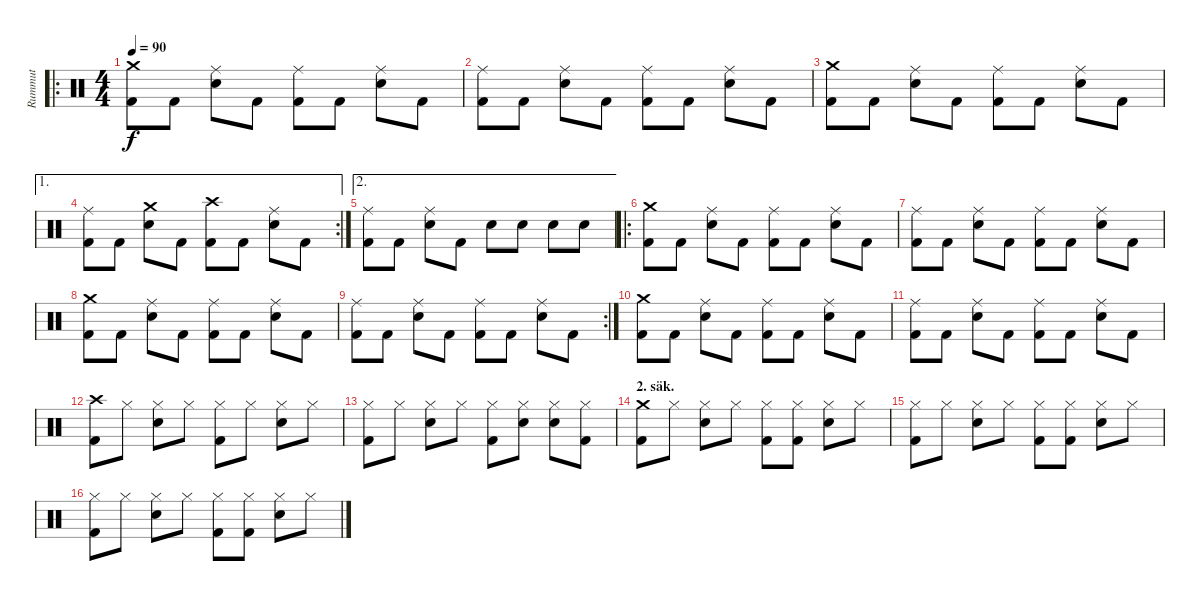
\track ("Rummut" "Rummut") {instrument percussion}
\staff {score}
\articulation defaults
\ro
\ts (4 4)
\tempo 90
\clef neutral
\ks c
("Kick (hit) 2" "Crash medium (hit)").8{dy f} "Kick (hit) 2".8 ("Ride (middle)" "Snare (hit) 2").8 "Kick (hit) 2".8 ("Kick (hit) 2" "Ride (middle)").8 "Kick (hit) 2".8 ("Ride (middle)" "Snare (hit) 2").8 "Kick (hit) 2".8 |
("Kick (hit) 2" "Ride (middle)").8 "Kick (hit) 2".8 ("Ride (middle)" "Snare (hit) 2").8 "Kick (hit) 2".8 ("Kick (hit) 2" "Ride (middle)").8 "Kick (hit) 2".8 ("Ride (middle)" "Snare (hit) 2").8 "Kick (hit) 2".8 |
("Kick (hit) 2" "Crash medium (hit)").8 "Kick (hit) 2".8 ("Ride (middle)" "Snare (hit) 2").8 "Kick (hit) 2".8 ("Kick (hit) 2" "Ride (middle)").8 "Kick (hit) 2".8 ("Ride (middle)" "Snare (hit) 2").8 "Kick (hit) 2".8 |
\ae 1
\rc 2
("Kick (hit) 2" "Ride (middle)").8 "Kick (hit) 2".8 ("Crash medium (hit)" "Snare (hit) 2").8 "Kick (hit) 2".8 ("Kick (hit) 2" "Crash high (hit)").8 "Kick (hit) 2".8 ("Ride (middle)" "Snare (hit) 2").8 "Kick (hit) 2".8 |
\ae 2
("Kick (hit) 2" "Ride (middle)").8 "Kick (hit) 2".8 ("Ride (middle)" "Snare (hit) 2").8 "Kick (hit) 2".8 "Snare (hit) 2".8 "Snare (hit) 2".8 "Snare (hit) 2".8 "Snare (hit) 2".8 |
\ro
("Kick (hit) 2" "Crash medium (hit)").8 "Kick (hit) 2".8 ("Ride (middle)" "Snare (hit) 2").8 "Kick (hit) 2".8 ("Kick (hit) 2" "Ride (middle)").8 "Kick (hit) 2".8 ("Ride (middle)" "Snare (hit) 2").8 "Kick (hit) 2".8 |
("Kick (hit) 2" "Ride (middle)").8 "Kick (hit) 2".8 ("Ride (middle)" "Snare (hit) 2").8 "Kick (hit) 2".8 ("Kick (hit) 2" "Ride (middle)").8 "Kick (hit) 2".8 ("Ride (middle)" "Snare (hit) 2").8 "Kick (hit) 2".8 |
("Kick (hit) 2" "Crash medium (hit)").8 "Kick (hit) 2".8 ("Ride (middle)" "Snare (hit) 2").8 "Kick (hit) 2".8 ("Kick (hit) 2" "Ride (middle)").8 "Kick (hit) 2".8 ("Ride (middle)" "Snare (hit) 2").8 "Kick (hit) 2".8 |
\rc 2
("Kick (hit) 2" "Ride (middle)").8 "Kick (hit) 2".8 ("Ride (middle)" "Snare (hit) 2").8 "Kick (hit) 2".8 ("Kick (hit) 2" "Ride (middle)").8 "Kick (hit) 2".8 ("Ride (middle)" "Snare (hit) 2").8 "Kick (hit) 2".8 |
("Kick (hit) 2" "Crash medium (hit)").8 "Kick (hit) 2".8 ("Ride (middle)" "Snare (hit) 2").8 "Kick (hit) 2".8 ("Kick (hit) 2" "Ride (middle)").8 "Kick (hit) 2".8 ("Ride (middle)" "Snare (hit) 2").8 "Kick (hit) 2".8 |
("Kick (hit) 2" "Ride (middle)").8 "Kick (hit) 2".8 ("Ride (middle)" "Snare (hit) 2").8 "Kick (hit) 2".8 ("Kick (hit) 2" "Ride (middle)").8 "Kick (hit) 2".8 ("Ride (middle)" "Snare (hit) 2").8 "Kick (hit) 2".8 |
("Kick (hit) 2" "Crash high (hit)").8 "Hi-Hat (closed)".8 ("Hi-Hat (closed)" "Snare (hit) 2").8 "Hi-Hat (closed)".8 ("Kick (hit) 2" "Hi-Hat (closed)").8 "Hi-Hat (closed)".8 ("Hi-Hat (closed)" "Snare (hit) 2").8 "Hi-Hat (closed)".8 |
("Kick (hit) 2" "Hi-Hat (closed)").8 "Hi-Hat (closed)".8 ("Hi-Hat (closed)" "Snare (hit) 2").8 "Hi-Hat (closed)".8 ("Kick (hit) 2" "Hi-Hat (closed)").8 ("Hi-Hat (closed)" "Snare (hit) 2").8 ("Hi-Hat (closed)" "Snare (hit) 2").8 ("Kick (hit) 2" "Hi-Hat (closed)").8 |
\section ("" "2. säk.")
("Kick (hit) 2" "Crash medium (hit)").8 "Hi-Hat (closed)".8 ("Hi-Hat (closed)" "Snare (hit) 2").8 "Hi-Hat (closed)".8 ("Kick (hit) 2" "Hi-Hat (closed)").8 ("Kick (hit) 2" "Hi-Hat (closed)").8 ("Hi-Hat (closed)" "Snare (hit) 2").8 "Hi-Hat (closed)".8 |
("Kick (hit) 2" "Hi-Hat (closed)").8 "Hi-Hat (closed)".8 ("Hi-Hat (closed)" "Snare (hit) 2").8 "Hi-Hat (closed)".8 ("Kick (hit) 2" "Hi-Hat (closed)").8 ("Kick (hit) 2" "Hi-Hat (closed)").8 ("Hi-Hat (closed)" "Snare (hit) 2").8 "Hi-Hat (closed)".8 |
("Kick (hit) 2" "Hi-Hat (closed)").8 "Hi-Hat (closed)".8 ("Hi-Hat (closed)" "Snare (hit) 2").8 "Hi-Hat (closed)".8 ("Kick (hit) 2" "Hi-Hat (closed)").8 ("Kick (hit) 2" "Hi-Hat (closed)").8 ("Hi-Hat (closed)" "Snare (hit) 2").8 "Hi-Hat (closed)".8
